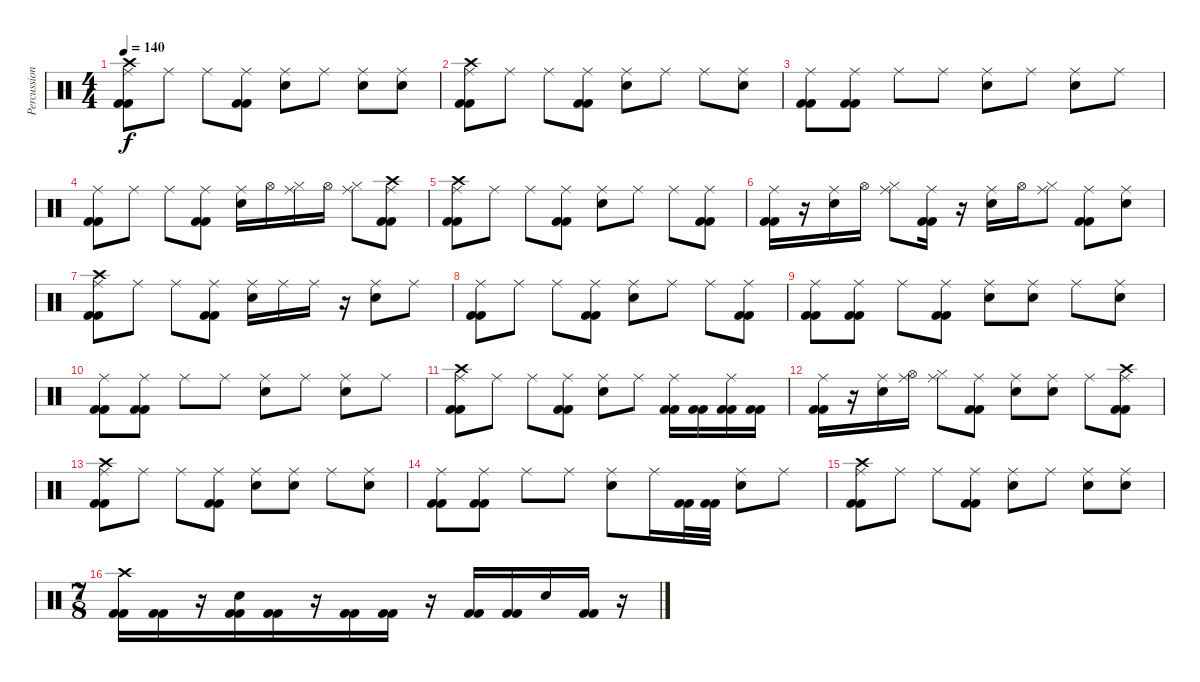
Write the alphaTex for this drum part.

\track ("Percussions" "Percussion") {instrument percussion}
\staff {score}
\articulation defaults
\ts (4 4)
\tempo 140
\clef neutral
\ks c
("Kick (hit) 2" "Kick (hit) 2" "Crash high (hit)" "Ride (middle)").8{dy f} "Ride (middle)".8 "Ride (middle)".8 ("Kick (hit) 2" "Kick (hit) 2" "Ride (middle)").8 ("Electric Snare (hit)" "Ride (middle)").8 "Ride (middle)".8 ("Electric Snare (hit)" "Ride (middle)").8 ("Electric Snare (hit)" "Ride (middle)").8 |
("Kick (hit) 2" "Kick (hit) 2" "Crash high (hit)" "Ride (middle)").8 "Ride (middle)".8 "Ride (middle)".8 ("Kick (hit) 2" "Kick (hit) 2" "Ride (middle)").8 ("Electric Snare (hit)" "Ride (middle)").8 "Ride (middle)".8 "Ride (middle)".8 ("Electric Snare (hit)" "Ride (middle)").8 |
("Kick (hit) 2" "Kick (hit) 2" "Ride (middle)").8 ("Kick (hit) 2" "Kick (hit) 2" "Ride (middle)").8 "Ride (middle)".8 "Ride (middle)".8 ("Electric Snare (hit)" "Ride (middle)").8 "Ride (middle)".8 ("Electric Snare (hit)" "Ride (middle)").8 "Ride (middle)".8 |
("Kick (hit) 2" "Kick (hit) 2" "Ride (middle)").8 "Ride (middle)".8 "Ride (middle)".8 ("Kick (hit) 2" "Kick (hit) 2" "Ride (middle)").8 ("Electric Snare (hit)" "Ride (middle)").16 "Hi-Hat (open)".16 ("Hi-Hat (closed)" "Ride (middle)").16 "Hi-Hat (open)".16 ("Hi-Hat (closed)" "Ride (middle)").8 ("Kick (hit) 2" "Kick (hit) 2" "Crash high (hit)" "Ride (middle)").8 |
("Kick (hit) 2" "Kick (hit) 2" "Crash high (hit)" "Ride (middle)").8 "Ride (middle)".8 "Ride (middle)".8 ("Kick (hit) 2" "Kick (hit) 2" "Ride (middle)").8 ("Electric Snare (hit)" "Ride (middle)").8 "Ride (middle)".8 "Ride (middle)".8 ("Kick (hit) 2" "Kick (hit) 2" "Ride (middle)").8 |
("Kick (hit) 2" "Kick (hit) 2" "Ride (middle)").16 r.16 ("Electric Snare (hit)" "Ride (middle)").16 "Hi-Hat (open)".16 ("Hi-Hat (closed)" "Ride (middle)").8 ("Kick (hit) 2" "Kick (hit) 2" "Ride (middle)").16 r.16 ("Electric Snare (hit)" "Ride (middle)").16 "Hi-Hat (open)".16 ("Hi-Hat (closed)" "Ride (middle)").8 ("Kick (hit) 2" "Kick (hit) 2" "Ride (middle)").8 ("Electric Snare (hit)" "Ride (middle)").8 |
("Kick (hit) 2" "Kick (hit) 2" "Crash high (hit)" "Ride (middle)").8 "Ride (middle)".8 "Ride (middle)".8 ("Kick (hit) 2" "Kick (hit) 2" "Ride (middle)").8 ("Electric Snare (hit)" "Ride (middle)").16 "Ride (middle)".16 "Ride (middle)".16 r.16 ("Electric Snare (hit)" "Ride (middle)").8 "Ride (middle)".8 |
("Kick (hit) 2" "Kick (hit) 2" "Ride (middle)").8 "Ride (middle)".8 "Ride (middle)".8 ("Kick (hit) 2" "Kick (hit) 2" "Ride (middle)").8 ("Electric Snare (hit)" "Ride (middle)").8 "Ride (middle)".8 "Ride (middle)".8 ("Kick (hit) 2" "Kick (hit) 2" "Ride (middle)").8 |
("Kick (hit) 2" "Kick (hit) 2" "Ride (middle)").8 ("Kick (hit) 2" "Kick (hit) 2" "Ride (middle)").8 "Ride (middle)".8 ("Kick (hit) 2" "Kick (hit) 2" "Ride (middle)").8 ("Electric Snare (hit)" "Ride (middle)").8 ("Electric Snare (hit)" "Ride (middle)").8 "Ride (middle)".8 ("Electric Snare (hit)" "Ride (middle)").8 |
("Kick (hit) 2" "Kick (hit) 2" "Ride (middle)").8 ("Kick (hit) 2" "Kick (hit) 2" "Ride (middle)").8 "Ride (middle)".8 "Ride (middle)".8 ("Electric Snare (hit)" "Ride (middle)").8 "Ride (middle)".8 ("Electric Snare (hit)" "Ride (middle)").8 "Ride (middle)".8 |
("Kick (hit) 2" "Kick (hit) 2" "Crash high (hit)" "Ride (middle)").8 "Ride (middle)".8 "Ride (middle)".8 ("Kick (hit) 2" "Kick (hit) 2" "Ride (middle)").8 ("Electric Snare (hit)" "Ride (middle)").8 "Ride (middle)".8 ("Kick (hit) 2" "Kick (hit) 2" "Ride (middle)").16 ("Kick (hit) 2" "Kick (hit) 2").16 ("Kick (hit) 2" "Kick (hit) 2" "Ride (middle)").16 ("Kick (hit) 2" "Kick (hit) 2").16 |
("Kick (hit) 2" "Kick (hit) 2" "Ride (middle)").16 r.16 ("Electric Snare (hit)" "Ride (middle)").16 ("Hi-Hat (open)" "Ride (middle)").16 ("Hi-Hat (closed)" "Ride (middle)").8 ("Kick (hit) 2" "Kick (hit) 2" "Ride (middle)").8 ("Electric Snare (hit)" "Ride (middle)").8 ("Electric Snare (hit)" "Ride (middle)").8 "Ride (middle)".8 ("Kick (hit) 2" "Kick (hit) 2" "Crash high (hit)" "Ride (middle)").8 |
("Kick (hit) 2" "Kick (hit) 2" "Crash high (hit)" "Ride (middle)").8 "Ride (middle)".8 "Ride (middle)".8 ("Kick (hit) 2" "Kick (hit) 2" "Ride (middle)").8 ("Electric Snare (hit)" "Ride (middle)").8 ("Electric Snare (hit)" "Ride (middle)").8 "Ride (middle)".8 ("Electric Snare (hit)" "Ride (middle)").8 |
("Kick (hit) 2" "Kick (hit) 2" "Ride (middle)").8 ("Kick (hit) 2" "Kick (hit) 2" "Ride (middle)").8 "Ride (middle)".8 "Ride (middle)".8 ("Electric Snare (hit)" "Ride (middle)").8 "Ride (middle)".16 ("Kick (hit) 2" "Kick (hit) 2").32 ("Kick (hit) 2" "Kick (hit) 2").32 ("Electric Snare (hit)" "Ride (middle)").8 "Ride (middle)".8 |
("Kick (hit) 2" "Kick (hit) 2" "Crash high (hit)" "Ride (middle)").8 "Ride (middle)".8 "Ride (middle)".8 ("Kick (hit) 2" "Kick (hit) 2" "Ride (middle)").8 ("Electric Snare (hit)" "Ride (middle)").8 "Ride (middle)".8 ("Electric Snare (hit)" "Ride (middle)").8 ("Electric Snare (hit)" "Ride (middle)").8 |
\ts (7 8)
("Kick (hit) 2" "Kick (hit) 2" "Crash high (hit)").16 ("Kick (hit) 2" "Kick (hit) 2").16 r.16 ("Kick (hit) 2" "Kick (hit) 2" "Electric Snare (hit)").16 ("Kick (hit) 2" "Kick (hit) 2").16 r.16 ("Kick (hit) 2" "Kick (hit) 2").16 ("Kick (hit) 2" "Kick (hit) 2").16 r.16 ("Kick (hit) 2" "Kick (hit) 2").16 ("Kick (hit) 2" "Kick (hit) 2").16 "Electric Snare (hit)".16 ("Kick (hit) 2" "Kick (hit) 2").16 r.16
